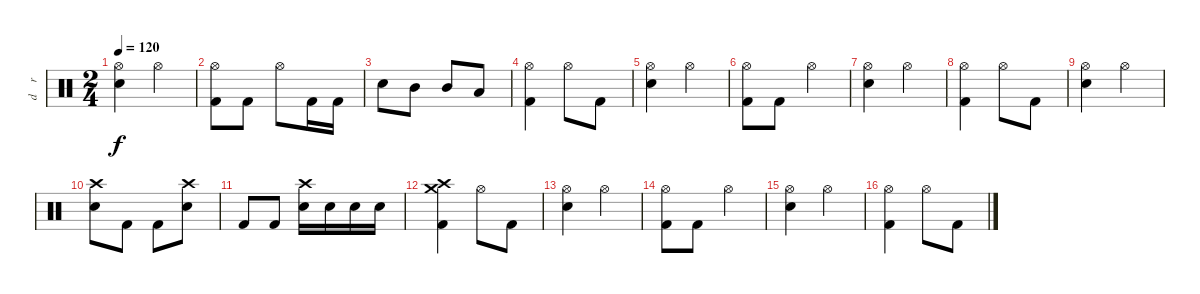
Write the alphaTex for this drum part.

\track ("d    r    u  m  s" "d    r    ") {instrument percussion}
\staff {score}
\articulation defaults
\ts (2 4)
\tempo 120
\clef neutral
\ks c
("Hi-Hat (open)" "Snare (hit) 2").4{dy f} "Hi-Hat (open)".4 |
("Hi-Hat (open)" "Kick (hit) 2").8 "Kick (hit) 2".8 "Hi-Hat (open)".8 "Kick (hit) 2".16 "Kick (hit) 2".16 |
"Snare (hit) 2".8 "Mid Tom (hit)".8 "Mid Tom (hit)".8 "Low Tom (hit)".8 |
("Hi-Hat (open)" "Kick (hit) 2").4 "Hi-Hat (open)".8 "Kick (hit) 2".8 |
("Hi-Hat (open)" "Snare (hit) 2").4 "Hi-Hat (open)".4 |
("Hi-Hat (open)" "Kick (hit) 2").8 "Kick (hit) 2".8 "Hi-Hat (open)".4 |
("Hi-Hat (open)" "Snare (hit) 2").4 "Hi-Hat (open)".4 |
("Hi-Hat (open)" "Kick (hit) 2").4 "Hi-Hat (open)".8 "Kick (hit) 2".8 |
("Hi-Hat (open)" "Snare (hit) 2").4 "Hi-Hat (open)".4 |
("Crash high (hit)" "Snare (hit) 2").8 "Kick (hit) 2".8 "Kick (hit) 2".8 ("Crash high (hit)" "Snare (hit) 2").8 |
"Kick (hit) 2".8 "Kick (hit) 2".8 ("Crash high (hit)" "Snare (hit) 2").16 "Snare (hit) 2".16 "Snare (hit) 2".16 "Snare (hit) 2".16 |
("Crash high (hit)" "Crash medium (hit)" "Kick (hit) 2").4 "Hi-Hat (open)".8 "Kick (hit) 2".8 |
("Hi-Hat (open)" "Snare (hit) 2").4 "Hi-Hat (open)".4 |
("Hi-Hat (open)" "Kick (hit) 2").8 "Kick (hit) 2".8 "Hi-Hat (open)".4 |
("Hi-Hat (open)" "Snare (hit) 2").4 "Hi-Hat (open)".4 |
("Hi-Hat (open)" "Kick (hit) 2").4 "Hi-Hat (open)".8 "Kick (hit) 2".8
